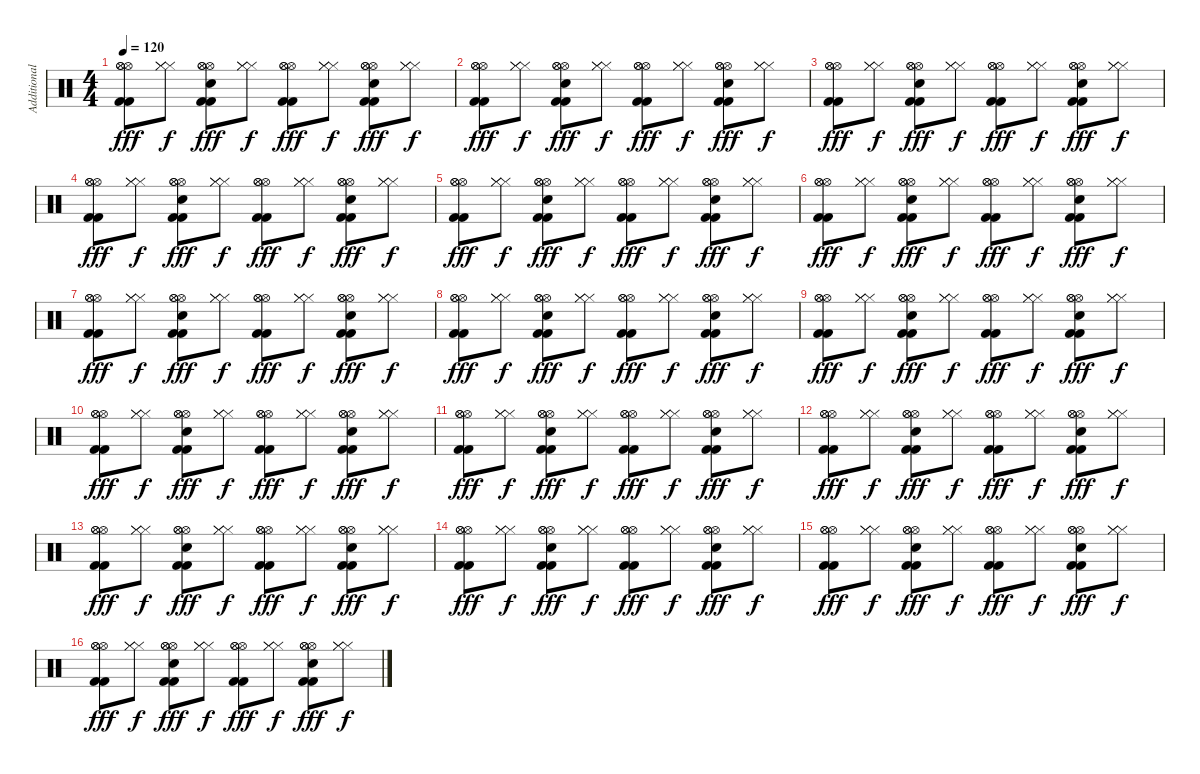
\track ("Additional Rythm" "Additional") {instrument percussion}
\staff {score}
\articulation defaults
\ts (4 4)
\tempo 120
\clef neutral
\ks c
("Hi-Hat (open)" "Hi-Hat (open)" "Hi-Hat (open)" "Kick (hit) 2" "Kick (hit) 2").8{dy fff} ("Hi-Hat (closed)" "Hi-Hat (closed)" "Hi-Hat (closed)").8{dy f} ("Hi-Hat (open)" "Hi-Hat (open)" "Hi-Hat (open)" "Kick (hit) 2" "Kick (hit) 2" "Snare (hit) 2").8{dy fff} ("Hi-Hat (closed)" "Hi-Hat (closed)" "Hi-Hat (closed)").8{dy f} ("Hi-Hat (open)" "Hi-Hat (open)" "Hi-Hat (open)" "Kick (hit) 2" "Kick (hit) 2").8{dy fff} ("Hi-Hat (closed)" "Hi-Hat (closed)" "Hi-Hat (closed)").8{dy f} ("Hi-Hat (open)" "Hi-Hat (open)" "Hi-Hat (open)" "Kick (hit) 2" "Kick (hit) 2" "Snare (hit) 2").8{dy fff} ("Hi-Hat (closed)" "Hi-Hat (closed)" "Hi-Hat (closed)").8{dy f} |
("Hi-Hat (open)" "Hi-Hat (open)" "Hi-Hat (open)" "Kick (hit) 2" "Kick (hit) 2").8{dy fff} ("Hi-Hat (closed)" "Hi-Hat (closed)" "Hi-Hat (closed)").8{dy f} ("Hi-Hat (open)" "Hi-Hat (open)" "Hi-Hat (open)" "Kick (hit) 2" "Kick (hit) 2" "Snare (hit) 2").8{dy fff} ("Hi-Hat (closed)" "Hi-Hat (closed)" "Hi-Hat (closed)").8{dy f} ("Hi-Hat (open)" "Hi-Hat (open)" "Hi-Hat (open)" "Kick (hit) 2" "Kick (hit) 2").8{dy fff} ("Hi-Hat (closed)" "Hi-Hat (closed)" "Hi-Hat (closed)").8{dy f} ("Hi-Hat (open)" "Hi-Hat (open)" "Hi-Hat (open)" "Kick (hit) 2" "Kick (hit) 2" "Snare (hit) 2").8{dy fff} ("Hi-Hat (closed)" "Hi-Hat (closed)" "Hi-Hat (closed)").8{dy f} |
("Hi-Hat (open)" "Hi-Hat (open)" "Hi-Hat (open)" "Kick (hit) 2" "Kick (hit) 2").8{dy fff} ("Hi-Hat (closed)" "Hi-Hat (closed)" "Hi-Hat (closed)").8{dy f} ("Hi-Hat (open)" "Hi-Hat (open)" "Hi-Hat (open)" "Kick (hit) 2" "Kick (hit) 2" "Snare (hit) 2").8{dy fff} ("Hi-Hat (closed)" "Hi-Hat (closed)" "Hi-Hat (closed)").8{dy f} ("Hi-Hat (open)" "Hi-Hat (open)" "Hi-Hat (open)" "Kick (hit) 2" "Kick (hit) 2").8{dy fff} ("Hi-Hat (closed)" "Hi-Hat (closed)" "Hi-Hat (closed)").8{dy f} ("Hi-Hat (open)" "Hi-Hat (open)" "Hi-Hat (open)" "Kick (hit) 2" "Kick (hit) 2" "Snare (hit) 2").8{dy fff} ("Hi-Hat (closed)" "Hi-Hat (closed)" "Hi-Hat (closed)").8{dy f} |
("Hi-Hat (open)" "Hi-Hat (open)" "Hi-Hat (open)" "Kick (hit) 2" "Kick (hit) 2").8{dy fff} ("Hi-Hat (closed)" "Hi-Hat (closed)" "Hi-Hat (closed)").8{dy f} ("Hi-Hat (open)" "Hi-Hat (open)" "Hi-Hat (open)" "Kick (hit) 2" "Kick (hit) 2" "Snare (hit) 2").8{dy fff} ("Hi-Hat (closed)" "Hi-Hat (closed)" "Hi-Hat (closed)").8{dy f} ("Hi-Hat (open)" "Hi-Hat (open)" "Hi-Hat (open)" "Kick (hit) 2" "Kick (hit) 2").8{dy fff} ("Hi-Hat (closed)" "Hi-Hat (closed)" "Hi-Hat (closed)").8{dy f} ("Hi-Hat (open)" "Hi-Hat (open)" "Hi-Hat (open)" "Kick (hit) 2" "Kick (hit) 2" "Snare (hit) 2").8{dy fff} ("Hi-Hat (closed)" "Hi-Hat (closed)" "Hi-Hat (closed)").8{dy f} |
("Hi-Hat (open)" "Hi-Hat (open)" "Hi-Hat (open)" "Kick (hit) 2" "Kick (hit) 2").8{dy fff} ("Hi-Hat (closed)" "Hi-Hat (closed)" "Hi-Hat (closed)").8{dy f} ("Hi-Hat (open)" "Hi-Hat (open)" "Hi-Hat (open)" "Kick (hit) 2" "Kick (hit) 2" "Snare (hit) 2").8{dy fff} ("Hi-Hat (closed)" "Hi-Hat (closed)" "Hi-Hat (closed)").8{dy f} ("Hi-Hat (open)" "Hi-Hat (open)" "Hi-Hat (open)" "Kick (hit) 2" "Kick (hit) 2").8{dy fff} ("Hi-Hat (closed)" "Hi-Hat (closed)" "Hi-Hat (closed)").8{dy f} ("Hi-Hat (open)" "Hi-Hat (open)" "Hi-Hat (open)" "Kick (hit) 2" "Kick (hit) 2" "Snare (hit) 2").8{dy fff} ("Hi-Hat (closed)" "Hi-Hat (closed)" "Hi-Hat (closed)").8{dy f} |
("Hi-Hat (open)" "Hi-Hat (open)" "Hi-Hat (open)" "Kick (hit) 2" "Kick (hit) 2").8{dy fff} ("Hi-Hat (closed)" "Hi-Hat (closed)" "Hi-Hat (closed)").8{dy f} ("Hi-Hat (open)" "Hi-Hat (open)" "Hi-Hat (open)" "Kick (hit) 2" "Kick (hit) 2" "Snare (hit) 2").8{dy fff} ("Hi-Hat (closed)" "Hi-Hat (closed)" "Hi-Hat (closed)").8{dy f} ("Hi-Hat (open)" "Hi-Hat (open)" "Hi-Hat (open)" "Kick (hit) 2" "Kick (hit) 2").8{dy fff} ("Hi-Hat (closed)" "Hi-Hat (closed)" "Hi-Hat (closed)").8{dy f} ("Hi-Hat (open)" "Hi-Hat (open)" "Hi-Hat (open)" "Kick (hit) 2" "Kick (hit) 2" "Snare (hit) 2").8{dy fff} ("Hi-Hat (closed)" "Hi-Hat (closed)" "Hi-Hat (closed)").8{dy f} |
("Hi-Hat (open)" "Hi-Hat (open)" "Hi-Hat (open)" "Kick (hit) 2" "Kick (hit) 2").8{dy fff} ("Hi-Hat (closed)" "Hi-Hat (closed)" "Hi-Hat (closed)").8{dy f} ("Hi-Hat (open)" "Hi-Hat (open)" "Hi-Hat (open)" "Kick (hit) 2" "Kick (hit) 2" "Snare (hit) 2").8{dy fff} ("Hi-Hat (closed)" "Hi-Hat (closed)" "Hi-Hat (closed)").8{dy f} ("Hi-Hat (open)" "Hi-Hat (open)" "Hi-Hat (open)" "Kick (hit) 2" "Kick (hit) 2").8{dy fff} ("Hi-Hat (closed)" "Hi-Hat (closed)" "Hi-Hat (closed)").8{dy f} ("Hi-Hat (open)" "Hi-Hat (open)" "Hi-Hat (open)" "Kick (hit) 2" "Kick (hit) 2" "Snare (hit) 2").8{dy fff} ("Hi-Hat (closed)" "Hi-Hat (closed)" "Hi-Hat (closed)").8{dy f} |
("Hi-Hat (open)" "Hi-Hat (open)" "Hi-Hat (open)" "Kick (hit) 2" "Kick (hit) 2").8{dy fff} ("Hi-Hat (closed)" "Hi-Hat (closed)" "Hi-Hat (closed)").8{dy f} ("Hi-Hat (open)" "Hi-Hat (open)" "Hi-Hat (open)" "Kick (hit) 2" "Kick (hit) 2" "Snare (hit) 2").8{dy fff} ("Hi-Hat (closed)" "Hi-Hat (closed)" "Hi-Hat (closed)").8{dy f} ("Hi-Hat (open)" "Hi-Hat (open)" "Hi-Hat (open)" "Kick (hit) 2" "Kick (hit) 2").8{dy fff} ("Hi-Hat (closed)" "Hi-Hat (closed)" "Hi-Hat (closed)").8{dy f} ("Hi-Hat (open)" "Hi-Hat (open)" "Hi-Hat (open)" "Kick (hit) 2" "Kick (hit) 2" "Snare (hit) 2").8{dy fff} ("Hi-Hat (closed)" "Hi-Hat (closed)" "Hi-Hat (closed)").8{dy f} |
("Hi-Hat (open)" "Hi-Hat (open)" "Hi-Hat (open)" "Kick (hit) 2" "Kick (hit) 2").8{dy fff} ("Hi-Hat (closed)" "Hi-Hat (closed)" "Hi-Hat (closed)").8{dy f} ("Hi-Hat (open)" "Hi-Hat (open)" "Hi-Hat (open)" "Kick (hit) 2" "Kick (hit) 2" "Snare (hit) 2").8{dy fff} ("Hi-Hat (closed)" "Hi-Hat (closed)" "Hi-Hat (closed)").8{dy f} ("Hi-Hat (open)" "Hi-Hat (open)" "Hi-Hat (open)" "Kick (hit) 2" "Kick (hit) 2").8{dy fff} ("Hi-Hat (closed)" "Hi-Hat (closed)" "Hi-Hat (closed)").8{dy f} ("Hi-Hat (open)" "Hi-Hat (open)" "Hi-Hat (open)" "Kick (hit) 2" "Kick (hit) 2" "Snare (hit) 2").8{dy fff} ("Hi-Hat (closed)" "Hi-Hat (closed)" "Hi-Hat (closed)").8{dy f} |
("Hi-Hat (open)" "Hi-Hat (open)" "Hi-Hat (open)" "Kick (hit) 2" "Kick (hit) 2").8{dy fff} ("Hi-Hat (closed)" "Hi-Hat (closed)" "Hi-Hat (closed)").8{dy f} ("Hi-Hat (open)" "Hi-Hat (open)" "Hi-Hat (open)" "Kick (hit) 2" "Kick (hit) 2" "Snare (hit) 2").8{dy fff} ("Hi-Hat (closed)" "Hi-Hat (closed)" "Hi-Hat (closed)").8{dy f} ("Hi-Hat (open)" "Hi-Hat (open)" "Hi-Hat (open)" "Kick (hit) 2" "Kick (hit) 2").8{dy fff} ("Hi-Hat (closed)" "Hi-Hat (closed)" "Hi-Hat (closed)").8{dy f} ("Hi-Hat (open)" "Hi-Hat (open)" "Hi-Hat (open)" "Kick (hit) 2" "Kick (hit) 2" "Snare (hit) 2").8{dy fff} ("Hi-Hat (closed)" "Hi-Hat (closed)" "Hi-Hat (closed)").8{dy f} |
("Hi-Hat (open)" "Hi-Hat (open)" "Hi-Hat (open)" "Kick (hit) 2" "Kick (hit) 2").8{dy fff} ("Hi-Hat (closed)" "Hi-Hat (closed)" "Hi-Hat (closed)").8{dy f} ("Hi-Hat (open)" "Hi-Hat (open)" "Hi-Hat (open)" "Kick (hit) 2" "Kick (hit) 2" "Snare (hit) 2").8{dy fff} ("Hi-Hat (closed)" "Hi-Hat (closed)" "Hi-Hat (closed)").8{dy f} ("Hi-Hat (open)" "Hi-Hat (open)" "Hi-Hat (open)" "Kick (hit) 2" "Kick (hit) 2").8{dy fff} ("Hi-Hat (closed)" "Hi-Hat (closed)" "Hi-Hat (closed)").8{dy f} ("Hi-Hat (open)" "Hi-Hat (open)" "Hi-Hat (open)" "Kick (hit) 2" "Kick (hit) 2" "Snare (hit) 2").8{dy fff} ("Hi-Hat (closed)" "Hi-Hat (closed)" "Hi-Hat (closed)").8{dy f} |
("Hi-Hat (open)" "Hi-Hat (open)" "Hi-Hat (open)" "Kick (hit) 2" "Kick (hit) 2").8{dy fff} ("Hi-Hat (closed)" "Hi-Hat (closed)" "Hi-Hat (closed)").8{dy f} ("Hi-Hat (open)" "Hi-Hat (open)" "Hi-Hat (open)" "Kick (hit) 2" "Kick (hit) 2" "Snare (hit) 2").8{dy fff} ("Hi-Hat (closed)" "Hi-Hat (closed)" "Hi-Hat (closed)").8{dy f} ("Hi-Hat (open)" "Hi-Hat (open)" "Hi-Hat (open)" "Kick (hit) 2" "Kick (hit) 2").8{dy fff} ("Hi-Hat (closed)" "Hi-Hat (closed)" "Hi-Hat (closed)").8{dy f} ("Hi-Hat (open)" "Hi-Hat (open)" "Hi-Hat (open)" "Kick (hit) 2" "Kick (hit) 2" "Snare (hit) 2").8{dy fff} ("Hi-Hat (closed)" "Hi-Hat (closed)" "Hi-Hat (closed)").8{dy f} |
("Hi-Hat (open)" "Hi-Hat (open)" "Hi-Hat (open)" "Kick (hit) 2" "Kick (hit) 2").8{dy fff} ("Hi-Hat (closed)" "Hi-Hat (closed)" "Hi-Hat (closed)").8{dy f} ("Hi-Hat (open)" "Hi-Hat (open)" "Hi-Hat (open)" "Kick (hit) 2" "Kick (hit) 2" "Snare (hit) 2").8{dy fff} ("Hi-Hat (closed)" "Hi-Hat (closed)" "Hi-Hat (closed)").8{dy f} ("Hi-Hat (open)" "Hi-Hat (open)" "Hi-Hat (open)" "Kick (hit) 2" "Kick (hit) 2").8{dy fff} ("Hi-Hat (closed)" "Hi-Hat (closed)" "Hi-Hat (closed)").8{dy f} ("Hi-Hat (open)" "Hi-Hat (open)" "Hi-Hat (open)" "Kick (hit) 2" "Kick (hit) 2" "Snare (hit) 2").8{dy fff} ("Hi-Hat (closed)" "Hi-Hat (closed)" "Hi-Hat (closed)").8{dy f} |
("Hi-Hat (open)" "Hi-Hat (open)" "Hi-Hat (open)" "Kick (hit) 2" "Kick (hit) 2").8{dy fff} ("Hi-Hat (closed)" "Hi-Hat (closed)" "Hi-Hat (closed)").8{dy f} ("Hi-Hat (open)" "Hi-Hat (open)" "Hi-Hat (open)" "Kick (hit) 2" "Kick (hit) 2" "Snare (hit) 2").8{dy fff} ("Hi-Hat (closed)" "Hi-Hat (closed)" "Hi-Hat (closed)").8{dy f} ("Hi-Hat (open)" "Hi-Hat (open)" "Hi-Hat (open)" "Kick (hit) 2" "Kick (hit) 2").8{dy fff} ("Hi-Hat (closed)" "Hi-Hat (closed)" "Hi-Hat (closed)").8{dy f} ("Hi-Hat (open)" "Hi-Hat (open)" "Hi-Hat (open)" "Kick (hit) 2" "Kick (hit) 2" "Snare (hit) 2").8{dy fff} ("Hi-Hat (closed)" "Hi-Hat (closed)" "Hi-Hat (closed)").8{dy f} |
("Hi-Hat (open)" "Hi-Hat (open)" "Hi-Hat (open)" "Kick (hit) 2" "Kick (hit) 2").8{dy fff} ("Hi-Hat (closed)" "Hi-Hat (closed)" "Hi-Hat (closed)").8{dy f} ("Hi-Hat (open)" "Hi-Hat (open)" "Hi-Hat (open)" "Kick (hit) 2" "Kick (hit) 2" "Snare (hit) 2").8{dy fff} ("Hi-Hat (closed)" "Hi-Hat (closed)" "Hi-Hat (closed)").8{dy f} ("Hi-Hat (open)" "Hi-Hat (open)" "Hi-Hat (open)" "Kick (hit) 2" "Kick (hit) 2").8{dy fff} ("Hi-Hat (closed)" "Hi-Hat (closed)" "Hi-Hat (closed)").8{dy f} ("Hi-Hat (open)" "Hi-Hat (open)" "Hi-Hat (open)" "Kick (hit) 2" "Kick (hit) 2" "Snare (hit) 2").8{dy fff} ("Hi-Hat (closed)" "Hi-Hat (closed)" "Hi-Hat (closed)").8{dy f} |
("Hi-Hat (open)" "Hi-Hat (open)" "Hi-Hat (open)" "Kick (hit) 2" "Kick (hit) 2").8{dy fff} ("Hi-Hat (closed)" "Hi-Hat (closed)" "Hi-Hat (closed)").8{dy f} ("Hi-Hat (open)" "Hi-Hat (open)" "Hi-Hat (open)" "Kick (hit) 2" "Kick (hit) 2" "Snare (hit) 2").8{dy fff} ("Hi-Hat (closed)" "Hi-Hat (closed)" "Hi-Hat (closed)").8{dy f} ("Hi-Hat (open)" "Hi-Hat (open)" "Hi-Hat (open)" "Kick (hit) 2" "Kick (hit) 2").8{dy fff} ("Hi-Hat (closed)" "Hi-Hat (closed)" "Hi-Hat (closed)").8{dy f} ("Hi-Hat (open)" "Hi-Hat (open)" "Hi-Hat (open)" "Kick (hit) 2" "Kick (hit) 2" "Snare (hit) 2").8{dy fff} ("Hi-Hat (closed)" "Hi-Hat (closed)" "Hi-Hat (closed)").8{dy f}
